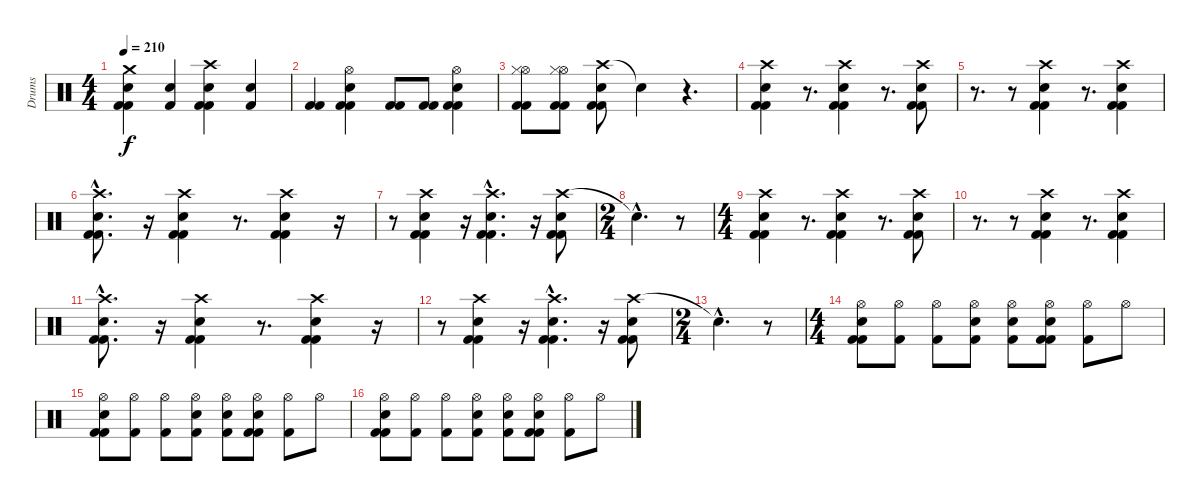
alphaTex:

\track ("Drums" "Drums") {instrument percussion}
\staff {score}
\articulation defaults
\ts (4 4)
\tempo 210
\clef neutral
\ks c
("Crash medium (hit)" "Snare (hit) 2" "Kick (hit) 2" "Kick (hit) 2").4{dy f} ("Electric Snare (hit)" "Kick (hit) 2").4 ("Crash high (hit)" "Snare (hit) 2" "Kick (hit) 2" "Kick (hit) 2").4 ("Electric Snare (hit)" "Kick (hit) 2").4 |
("Kick (hit) 2" "Kick (hit) 2").4 ("Hi-Hat (open)" "Snare (hit) 2" "Kick (hit) 2" "Kick (hit) 2").4 ("Kick (hit) 2" "Kick (hit) 2").8 ("Kick (hit) 2" "Kick (hit) 2").8 ("Hi-Hat (open)" "Snare (hit) 2" "Kick (hit) 2" "Kick (hit) 2").4 |
("Hi-Hat (open)" "Hi-Hat (closed)" "Kick (hit) 2" "Kick (hit) 2").8 ("Hi-Hat (open)" "Hi-Hat (closed)" "Kick (hit) 2" "Kick (hit) 2").8 ("Crash high (hit)" "Electric Snare (hit)" "Kick (hit) 2" "Kick (hit) 2").8 "Snare (hit)"{t}.4 r.4{d} |
("Crash high (hit)" "Snare (hit) 2" "Kick (hit) 2" "Kick (hit) 2").4 r.8{d} ("Crash high (hit)" "Snare (hit) 2" "Kick (hit) 2" "Kick (hit) 2").4 r.8{d} ("Crash high (hit)" "Snare (hit) 2" "Kick (hit) 2" "Kick (hit) 2").8 |
r.8{d} r.8 ("Crash high (hit)" "Snare (hit) 2" "Kick (hit) 2" "Kick (hit) 2").4 r.8{d} ("Crash high (hit)" "Snare (hit) 2" "Kick (hit) 2" "Kick (hit) 2").4 |
("Crash high (hit)"{hac} "Snare (hit) 2"{hac} "Kick (hit) 2"{hac} "Kick (hit) 2"{hac}).8{d} r.16 ("Crash high (hit)" "Snare (hit) 2" "Kick (hit) 2" "Kick (hit) 2").4 r.8{d} ("Crash high (hit)" "Snare (hit) 2" "Kick (hit) 2" "Kick (hit) 2").4 r.16 |
r.8 ("Crash high (hit)" "Snare (hit) 2" "Kick (hit) 2" "Kick (hit) 2").4 r.16 ("Crash high (hit)"{hac} "Snare (hit) 2"{hac} "Kick (hit) 2"{hac} "Kick (hit) 2"{hac}).4{d} r.16 ("Crash high (hit)" "Snare (hit) 2" "Kick (hit) 2" "Kick (hit) 2").8 |
\ts (2 4)
"Snare (hit)"{hac t}.4{d} r.8 |
\ts (4 4)
("Crash high (hit)" "Snare (hit) 2" "Kick (hit) 2" "Kick (hit) 2").4 r.8{d} ("Crash high (hit)" "Snare (hit) 2" "Kick (hit) 2" "Kick (hit) 2").4 r.8{d} ("Crash high (hit)" "Snare (hit) 2" "Kick (hit) 2" "Kick (hit) 2").8 |
r.8{d} r.8 ("Crash high (hit)" "Snare (hit) 2" "Kick (hit) 2" "Kick (hit) 2").4 r.8{d} ("Crash high (hit)" "Snare (hit) 2" "Kick (hit) 2" "Kick (hit) 2").4 |
("Crash high (hit)"{hac} "Snare (hit) 2"{hac} "Kick (hit) 2"{hac} "Kick (hit) 2"{hac}).8{d} r.16 ("Crash high (hit)" "Snare (hit) 2" "Kick (hit) 2" "Kick (hit) 2").4 r.8{d} ("Crash high (hit)" "Snare (hit) 2" "Kick (hit) 2" "Kick (hit) 2").4 r.16 |
r.8 ("Crash high (hit)" "Snare (hit) 2" "Kick (hit) 2" "Kick (hit) 2").4 r.16 ("Crash high (hit)"{hac} "Snare (hit) 2"{hac} "Kick (hit) 2"{hac} "Kick (hit) 2"{hac}).4{d} r.16 ("Crash high (hit)" "Snare (hit) 2" "Kick (hit) 2" "Kick (hit) 2").8 |
\ts (2 4)
"Snare (hit)"{hac t}.4{d} r.8 |
\ts (4 4)
("Hi-Hat (open)" "Snare (hit) 2" "Kick (hit) 2" "Kick (hit) 2").8 ("Hi-Hat (open)" "Kick (hit) 2").8 ("Hi-Hat (open)" "Kick (hit) 2").8 ("Hi-Hat (open)" "Electric Snare (hit)" "Kick (hit) 2").8 ("Hi-Hat (open)" "Snare (hit) 2" "Kick (hit) 2").8 ("Hi-Hat (open)" "Snare (hit) 2" "Kick (hit) 2" "Kick (hit) 2").8 ("Hi-Hat (open)" "Kick (hit) 2").8 "Hi-Hat (open)".8 |
("Hi-Hat (open)" "Snare (hit) 2" "Kick (hit) 2" "Kick (hit) 2").8 ("Hi-Hat (open)" "Kick (hit) 2").8 ("Hi-Hat (open)" "Kick (hit) 2").8 ("Hi-Hat (open)" "Electric Snare (hit)" "Kick (hit) 2").8 ("Hi-Hat (open)" "Snare (hit) 2" "Kick (hit) 2").8 ("Hi-Hat (open)" "Snare (hit) 2" "Kick (hit) 2" "Kick (hit) 2").8 ("Hi-Hat (open)" "Kick (hit) 2").8 "Hi-Hat (open)".8 |
("Hi-Hat (open)" "Snare (hit) 2" "Kick (hit) 2" "Kick (hit) 2").8 ("Hi-Hat (open)" "Kick (hit) 2").8 ("Hi-Hat (open)" "Kick (hit) 2").8 ("Hi-Hat (open)" "Electric Snare (hit)" "Kick (hit) 2").8 ("Hi-Hat (open)" "Snare (hit) 2" "Kick (hit) 2").8 ("Hi-Hat (open)" "Snare (hit) 2" "Kick (hit) 2" "Kick (hit) 2").8 ("Hi-Hat (open)" "Kick (hit) 2").8 "Hi-Hat (open)".8
